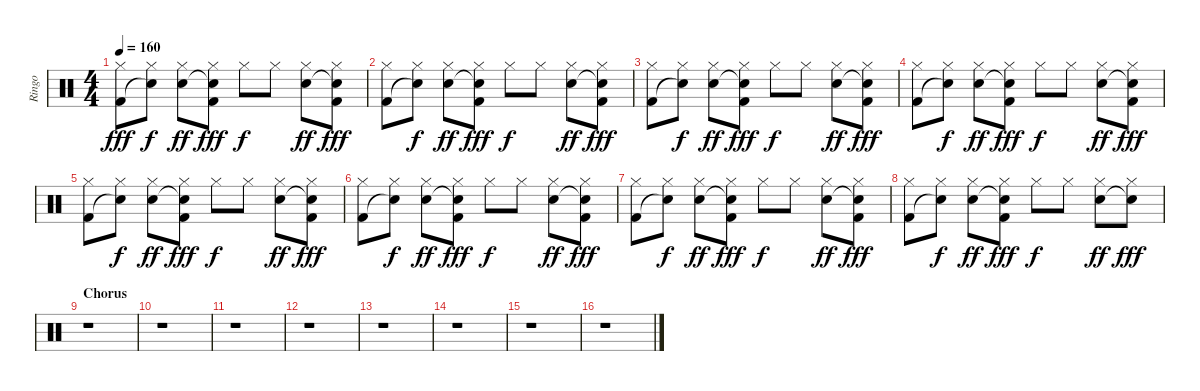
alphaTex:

\track ("Ringo" "Ringo") {instrument percussion}
\staff {score}
\articulation defaults
\ts (4 4)
\tempo 160
\clef neutral
\ks c
("Hi-Hat (closed)" "Kick (hit) 2").8{dy fff} ("Hi-Hat (closed)" "Snare (hit)"{t}).8{dy f} ("Hi-Hat (closed)" "Snare (hit) 2").8{dy ff} ("Hi-Hat (closed)" "Snare (hit)"{t} "Kick (hit) 2").8{dy fff} "Hi-Hat (closed)".8{dy f} "Hi-Hat (closed)".8 ("Hi-Hat (closed)" "Snare (hit) 2").8{dy ff} ("Hi-Hat (closed)" "Snare (hit)"{t} "Kick (hit) 2").8{dy fff} |
("Hi-Hat (closed)" "Kick (hit) 2").8 ("Hi-Hat (closed)" "Snare (hit)"{t}).8{dy f} ("Hi-Hat (closed)" "Snare (hit) 2").8{dy ff} ("Hi-Hat (closed)" "Snare (hit)"{t} "Kick (hit) 2").8{dy fff} "Hi-Hat (closed)".8{dy f} "Hi-Hat (closed)".8 ("Hi-Hat (closed)" "Snare (hit) 2").8{dy ff} ("Hi-Hat (closed)" "Snare (hit)"{t} "Kick (hit) 2").8{dy fff} |
("Hi-Hat (closed)" "Kick (hit) 2").8 ("Hi-Hat (closed)" "Snare (hit)"{t}).8{dy f} ("Hi-Hat (closed)" "Snare (hit) 2").8{dy ff} ("Hi-Hat (closed)" "Snare (hit)"{t} "Kick (hit) 2").8{dy fff} "Hi-Hat (closed)".8{dy f} "Hi-Hat (closed)".8 ("Hi-Hat (closed)" "Snare (hit) 2").8{dy ff} ("Hi-Hat (closed)" "Snare (hit)"{t} "Kick (hit) 2").8{dy fff} |
("Hi-Hat (closed)" "Kick (hit) 2").8 ("Hi-Hat (closed)" "Snare (hit)"{t}).8{dy f} ("Hi-Hat (closed)" "Snare (hit) 2").8{dy ff} ("Hi-Hat (closed)" "Snare (hit)"{t} "Kick (hit) 2").8{dy fff} "Hi-Hat (closed)".8{dy f} "Hi-Hat (closed)".8 ("Hi-Hat (closed)" "Snare (hit) 2").8{dy ff} ("Hi-Hat (closed)" "Snare (hit)"{t} "Kick (hit) 2").8{dy fff} |
("Hi-Hat (closed)" "Kick (hit) 2").8 ("Hi-Hat (closed)" "Snare (hit)"{t}).8{dy f} ("Hi-Hat (closed)" "Snare (hit) 2").8{dy ff} ("Hi-Hat (closed)" "Snare (hit)"{t} "Kick (hit) 2").8{dy fff} "Hi-Hat (closed)".8{dy f} "Hi-Hat (closed)".8 ("Hi-Hat (closed)" "Snare (hit) 2").8{dy ff} ("Hi-Hat (closed)" "Snare (hit)"{t} "Kick (hit) 2").8{dy fff} |
("Hi-Hat (closed)" "Kick (hit) 2").8 ("Hi-Hat (closed)" "Snare (hit)"{t}).8{dy f} ("Hi-Hat (closed)" "Snare (hit) 2").8{dy ff} ("Hi-Hat (closed)" "Snare (hit)"{t} "Kick (hit) 2").8{dy fff} "Hi-Hat (closed)".8{dy f} "Hi-Hat (closed)".8 ("Hi-Hat (closed)" "Snare (hit) 2").8{dy ff} ("Hi-Hat (closed)" "Snare (hit)"{t} "Kick (hit) 2").8{dy fff} |
("Hi-Hat (closed)" "Kick (hit) 2").8 ("Hi-Hat (closed)" "Snare (hit)"{t}).8{dy f} ("Hi-Hat (closed)" "Snare (hit) 2").8{dy ff} ("Hi-Hat (closed)" "Snare (hit)"{t} "Kick (hit) 2").8{dy fff} "Hi-Hat (closed)".8{dy f} "Hi-Hat (closed)".8 ("Hi-Hat (closed)" "Snare (hit) 2").8{dy ff} ("Hi-Hat (closed)" "Snare (hit)"{t} "Kick (hit) 2").8{dy fff} |
("Hi-Hat (closed)" "Kick (hit) 2").8 ("Hi-Hat (closed)" "Snare (hit)"{t}).8{dy f} ("Hi-Hat (closed)" "Snare (hit) 2").8{dy ff} ("Hi-Hat (closed)" "Snare (hit)"{t} "Kick (hit) 2").8{dy fff} "Hi-Hat (closed)".8{dy f} "Hi-Hat (closed)".8 ("Hi-Hat (closed)" "Snare (hit) 2").8{dy ff} ("Hi-Hat (closed)" "Snare (hit)"{t}).8{dy fff} |
\section ("" "Chorus")
r.1 |
r.1 |
r.1 |
r.1 |
r.1 |
r.1 |
r.1 |
r.1
